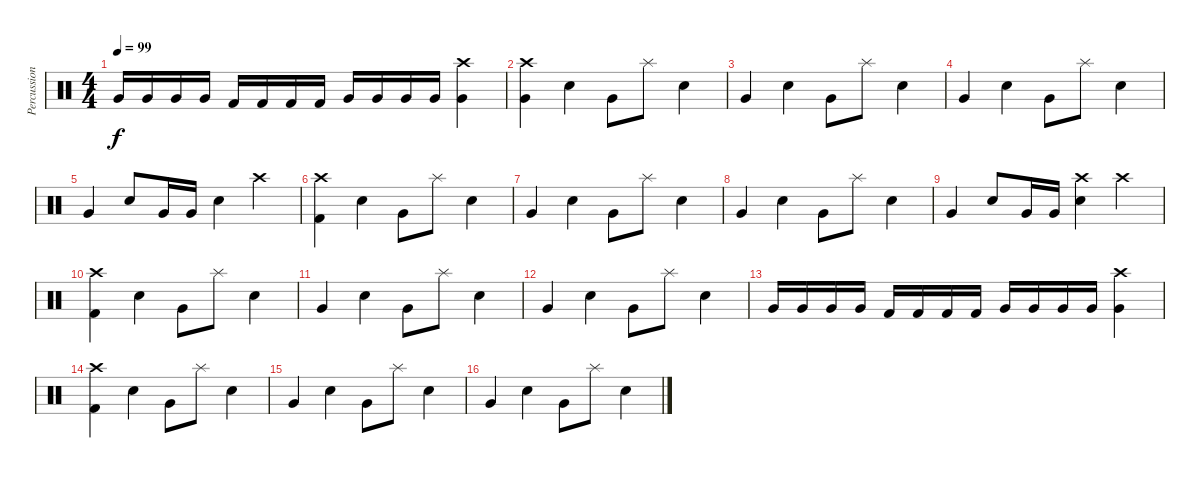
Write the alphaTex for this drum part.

\track ("Percussion" "Percussion") {instrument percussion}
\staff {score}
\articulation defaults
\ts (4 4)
\tempo 99
\clef neutral
\ks c "Very Low Tom (hit)".16{dy f} "Very Low Tom (hit)".16 "Very Low Tom (hit)".16 "Very Low Tom (hit)".16 "Kick (hit) 2".16 "Kick (hit) 2".16 "Kick (hit) 2".16 "Kick (hit) 2".16 "Very Low Tom (hit)".16 "Very Low Tom (hit)".16 "Very Low Tom (hit)".16 "Very Low Tom (hit)".16
("Crash high (hit)" "Very Low Tom (hit)").4 |
("Crash high (hit)" "Very Low Tom (hit)").4 "Electric Snare (hit)".4 "Very Low Tom (hit)".8 "Splash (hit)".8 "Electric Snare (hit)".4 |
"Very Low Tom (hit)".4 "Electric Snare (hit)".4 "Very Low Tom (hit)".8 "Splash (hit)".8 "Electric Snare (hit)".4 |
"Very Low Tom (hit)".4 "Electric Snare (hit)".4 "Very Low Tom (hit)".8 "Splash (hit)".8 "Electric Snare (hit)".4 |
"Very Low Tom (hit)".4 "Electric Snare (hit)".8 "Very Low Tom (hit)".16 "Very Low Tom (hit)".16 "Electric Snare (hit)".4 "Crash high (hit)".4 |
("Crash high (hit)" "Kick (hit) 2").4 "Electric Snare (hit)".4 "Very Low Tom (hit)".8 "Splash (hit)".8 "Electric Snare (hit)".4 |
"Very Low Tom (hit)".4 "Electric Snare (hit)".4 "Very Low Tom (hit)".8 "Splash (hit)".8 "Electric Snare (hit)".4 |
"Very Low Tom (hit)".4 "Electric Snare (hit)".4 "Very Low Tom (hit)".8 "Splash (hit)".8 "Electric Snare (hit)".4 |
"Very Low Tom (hit)".4 "Electric Snare (hit)".8 "Very Low Tom (hit)".16 "Very Low Tom (hit)".16 ("Crash high (hit)" "Electric Snare (hit)").4 "Crash high (hit)".4 |
("Crash high (hit)" "Kick (hit) 2").4 "Electric Snare (hit)".4 "Very Low Tom (hit)".8 "Splash (hit)".8 "Electric Snare (hit)".4 |
"Very Low Tom (hit)".4 "Electric Snare (hit)".4 "Very Low Tom (hit)".8 "Splash (hit)".8 "Electric Snare (hit)".4 |
"Very Low Tom (hit)".4 "Electric Snare (hit)".4 "Very Low Tom (hit)".8 "Splash (hit)".8 "Electric Snare (hit)".4 |
"Very Low Tom (hit)".16 "Very Low Tom (hit)".16 "Very Low Tom (hit)".16 "Very Low Tom (hit)".16 "Kick (hit) 2".16 "Kick (hit) 2".16 "Kick (hit) 2".16 "Kick (hit) 2".16 "Very Low Tom (hit)".16 "Very Low Tom (hit)".16 "Very Low Tom (hit)".16 "Very Low Tom (hit)".16 ("Crash high (hit)" "Very Low Tom (hit)").4 |
("Crash high (hit)" "Kick (hit) 2").4 "Electric Snare (hit)".4 "Very Low Tom (hit)".8 "Splash (hit)".8 "Electric Snare (hit)".4 |
"Very Low Tom (hit)".4 "Electric Snare (hit)".4 "Very Low Tom (hit)".8 "Splash (hit)".8 "Electric Snare (hit)".4 |
"Very Low Tom (hit)".4 "Electric Snare (hit)".4 "Very Low Tom (hit)".8 "Splash (hit)".8 "Electric Snare (hit)".4
